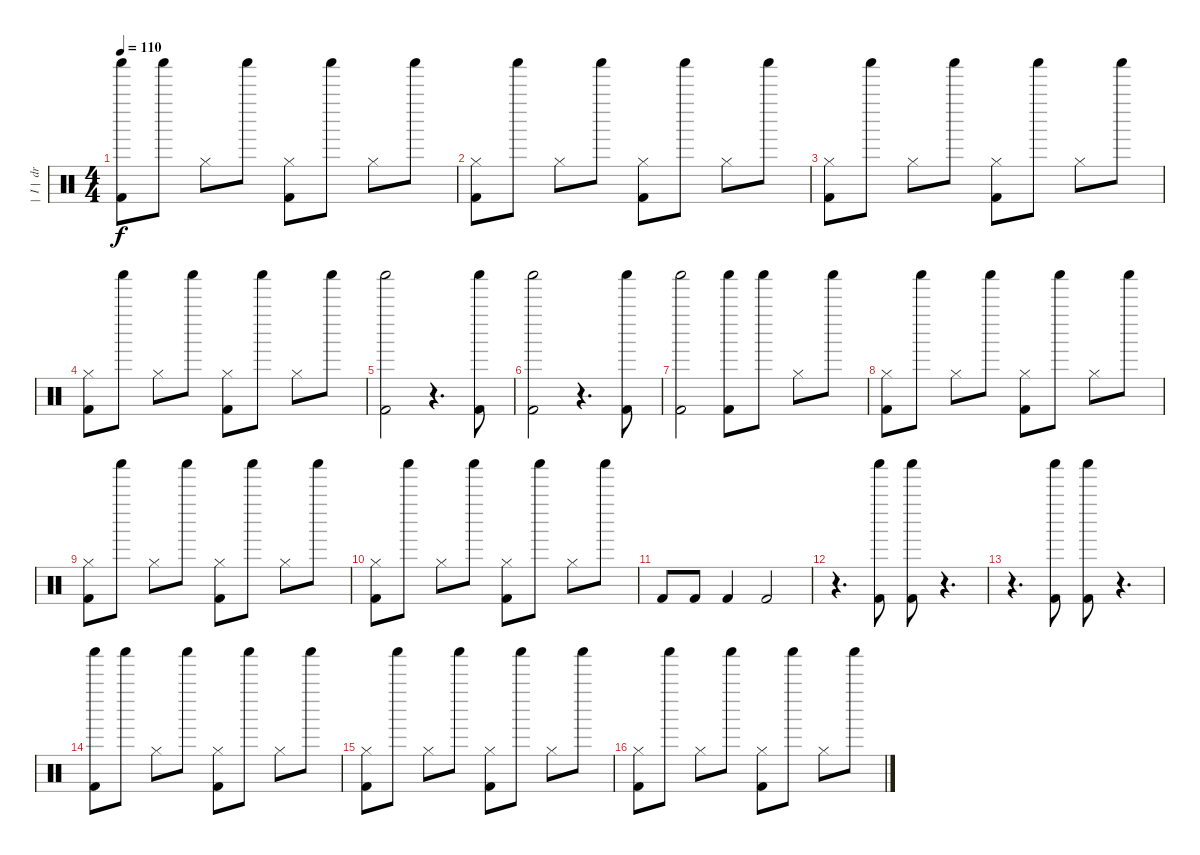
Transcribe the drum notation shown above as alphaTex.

\track ("|  I |  drum" "|  I |  dr") {instrument percussion}
\staff {score}
\articulation defaults
\ts (4 4)
\tempo 110
\clef neutral
\ks c
("Kick (hit) 2" "Shaker (hit)").8{dy f} "Shaker (hit)".8 "Hi-Hat (closed)".8 "Shaker (hit)".8 ("Kick (hit) 2" "Hi-Hat (closed)").8 "Shaker (hit)".8 "Hi-Hat (closed)".8 "Shaker (hit)".8 |
("Kick (hit) 2" "Hi-Hat (closed)").8 "Shaker (hit)".8 "Hi-Hat (closed)".8 "Shaker (hit)".8 ("Kick (hit) 2" "Hi-Hat (closed)").8 "Shaker (hit)".8 "Hi-Hat (closed)".8 "Shaker (hit)".8 |
("Kick (hit) 2" "Hi-Hat (closed)").8 "Shaker (hit)".8 "Hi-Hat (closed)".8 "Shaker (hit)".8 ("Kick (hit) 2" "Hi-Hat (closed)").8 "Shaker (hit)".8 "Hi-Hat (closed)".8 "Shaker (hit)".8 |
("Kick (hit) 2" "Hi-Hat (closed)").8 "Shaker (hit)".8 "Hi-Hat (closed)".8 "Shaker (hit)".8 ("Kick (hit) 2" "Hi-Hat (closed)").8 "Shaker (hit)".8 "Hi-Hat (closed)".8 "Shaker (hit)".8 |
("Kick (hit) 2" "Shaker (hit)").2 r.4{d} ("Kick (hit) 2" "Shaker (hit)").8 |
("Kick (hit) 2" "Shaker (hit)").2 r.4{d} ("Kick (hit) 2" "Shaker (hit)").8 |
("Kick (hit) 2" "Shaker (hit)").2 ("Kick (hit) 2" "Shaker (hit)").8 "Shaker (hit)".8 "Hi-Hat (closed)".8 "Shaker (hit)".8 |
("Kick (hit) 2" "Hi-Hat (closed)").8 "Shaker (hit)".8 "Hi-Hat (closed)".8 "Shaker (hit)".8 ("Kick (hit) 2" "Hi-Hat (closed)").8 "Shaker (hit)".8 "Hi-Hat (closed)".8 "Shaker (hit)".8 |
("Kick (hit) 2" "Hi-Hat (closed)").8 "Shaker (hit)".8 "Hi-Hat (closed)".8 "Shaker (hit)".8 ("Kick (hit) 2" "Hi-Hat (closed)").8 "Shaker (hit)".8 "Hi-Hat (closed)".8 "Shaker (hit)".8 |
("Kick (hit) 2" "Hi-Hat (closed)").8 "Shaker (hit)".8 "Hi-Hat (closed)".8 "Shaker (hit)".8 ("Kick (hit) 2" "Hi-Hat (closed)").8 "Shaker (hit)".8 "Hi-Hat (closed)".8 "Shaker (hit)".8 |
"Kick (hit) 2".8 "Kick (hit) 2".8 "Kick (hit) 2".4 "Kick (hit) 2".2 |
r.4{d} ("Kick (hit) 2" "Shaker (hit)").8 ("Kick (hit) 2" "Shaker (hit)").8 r.4{d} |
r.4{d} ("Kick (hit) 2" "Shaker (hit)").8 ("Kick (hit) 2" "Shaker (hit)").8 r.4{d} |
("Kick (hit) 2" "Shaker (hit)").8 "Shaker (hit)".8 "Hi-Hat (closed)".8 "Shaker (hit)".8 ("Kick (hit) 2" "Hi-Hat (closed)").8 "Shaker (hit)".8 "Hi-Hat (closed)".8 "Shaker (hit)".8 |
("Kick (hit) 2" "Hi-Hat (closed)").8 "Shaker (hit)".8 "Hi-Hat (closed)".8 "Shaker (hit)".8 ("Kick (hit) 2" "Hi-Hat (closed)").8 "Shaker (hit)".8 "Hi-Hat (closed)".8 "Shaker (hit)".8 |
("Kick (hit) 2" "Hi-Hat (closed)").8 "Shaker (hit)".8 "Hi-Hat (closed)".8 "Shaker (hit)".8 ("Kick (hit) 2" "Hi-Hat (closed)").8 "Shaker (hit)".8 "Hi-Hat (closed)".8 "Shaker (hit)".8
